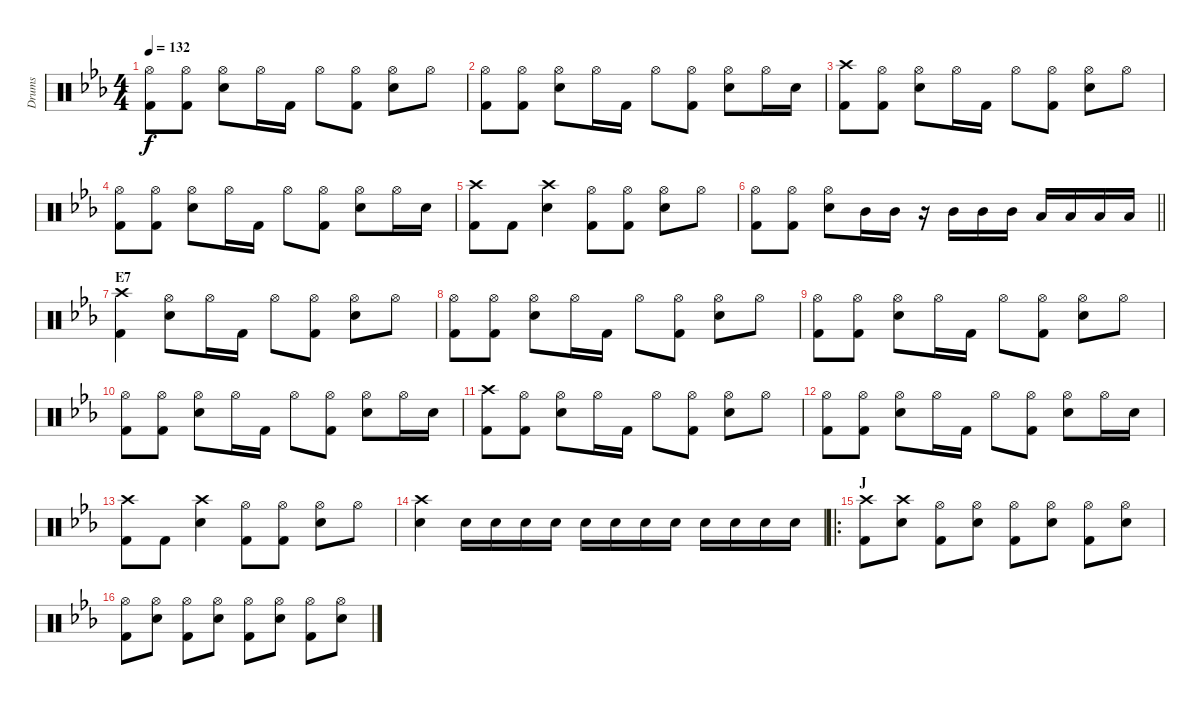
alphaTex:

\track ("Drums" "Drums") {instrument percussion}
\staff {score}
\articulation defaults
\ts (4 4)
\tempo 132
\clef neutral
\ks eb
("Hi-Hat (open)" "Kick (hit) 2").8{dy f} ("Hi-Hat (open)" "Kick (hit) 2").8 ("Hi-Hat (open)" "Snare (hit) 2").8 "Hi-Hat (open)".16 "Kick (hit) 2".16 "Hi-Hat (open)".8 ("Hi-Hat (open)" "Kick (hit) 2").8 ("Hi-Hat (open)" "Snare (hit) 2").8 "Hi-Hat (open)".8 |
("Hi-Hat (open)" "Kick (hit) 2").8 ("Hi-Hat (open)" "Kick (hit) 2").8 ("Hi-Hat (open)" "Snare (hit) 2").8 "Hi-Hat (open)".16 "Kick (hit) 2".16 "Hi-Hat (open)".8 ("Hi-Hat (open)" "Kick (hit) 2").8 ("Hi-Hat (open)" "Snare (hit) 2").8 "Hi-Hat (open)".16 "Snare (hit) 2".16 |
("Crash high (hit)" "Kick (hit) 2").8 ("Hi-Hat (open)" "Kick (hit) 2").8 ("Hi-Hat (open)" "Snare (hit) 2").8 "Hi-Hat (open)".16 "Kick (hit) 2".16 "Hi-Hat (open)".8 ("Hi-Hat (open)" "Kick (hit) 2").8 ("Hi-Hat (open)" "Snare (hit) 2").8 "Hi-Hat (open)".8 |
("Hi-Hat (open)" "Kick (hit) 2").8 ("Hi-Hat (open)" "Kick (hit) 2").8 ("Hi-Hat (open)" "Snare (hit) 2").8 "Hi-Hat (open)".16 "Kick (hit) 2".16 "Hi-Hat (open)".8 ("Hi-Hat (open)" "Kick (hit) 2").8 ("Hi-Hat (open)" "Snare (hit) 2").8 "Hi-Hat (open)".16 "Snare (hit) 2".16 |
("Crash high (hit)" "Kick (hit) 2").8 "Kick (hit) 2".8 ("Crash high (hit)" "Snare (hit) 2").4 ("Hi-Hat (open)" "Kick (hit) 2").8 ("Hi-Hat (open)" "Kick (hit) 2").8 ("Hi-Hat (open)" "Snare (hit) 2").8 "Hi-Hat (open)".8 |
\barLineRight lightlight
("Hi-Hat (open)" "Kick (hit) 2").8 ("Hi-Hat (open)" "Kick (hit) 2").8 ("Hi-Hat (open)" "Snare (hit) 2").8 "Mid Tom (hit)".16 "Mid Tom (hit)".16 r.16 "Mid Tom (hit)".16 "Mid Tom (hit)".16 "Mid Tom (hit)".16 "Low Tom (hit)".16 "Low Tom (hit)".16 "Low Tom (hit)".16 "Low Tom (hit)".16 |
\section ("" "E7")
("Crash high (hit)" "Kick (hit) 2").4 ("Hi-Hat (open)" "Snare (hit) 2").8 "Hi-Hat (open)".16 "Kick (hit) 2".16 "Hi-Hat (open)".8 ("Hi-Hat (open)" "Kick (hit) 2").8 ("Hi-Hat (open)" "Snare (hit) 2").8 "Hi-Hat (open)".8 |
("Hi-Hat (open)" "Kick (hit) 2").8 ("Hi-Hat (open)" "Kick (hit) 2").8 ("Hi-Hat (open)" "Snare (hit) 2").8 "Hi-Hat (open)".16 "Kick (hit) 2".16 "Hi-Hat (open)".8 ("Hi-Hat (open)" "Kick (hit) 2").8 ("Hi-Hat (open)" "Snare (hit) 2").8 "Hi-Hat (open)".8 |
("Hi-Hat (open)" "Kick (hit) 2").8 ("Hi-Hat (open)" "Kick (hit) 2").8 ("Hi-Hat (open)" "Snare (hit) 2").8 "Hi-Hat (open)".16 "Kick (hit) 2".16 "Hi-Hat (open)".8 ("Hi-Hat (open)" "Kick (hit) 2").8 ("Hi-Hat (open)" "Snare (hit) 2").8 "Hi-Hat (open)".8 |
("Hi-Hat (open)" "Kick (hit) 2").8 ("Hi-Hat (open)" "Kick (hit) 2").8 ("Hi-Hat (open)" "Snare (hit) 2").8 "Hi-Hat (open)".16 "Kick (hit) 2".16 "Hi-Hat (open)".8 ("Hi-Hat (open)" "Kick (hit) 2").8 ("Hi-Hat (open)" "Snare (hit) 2").8 "Hi-Hat (open)".16 "Snare (hit) 2".16 |
("Crash high (hit)" "Kick (hit) 2").8 ("Hi-Hat (open)" "Kick (hit) 2").8 ("Hi-Hat (open)" "Snare (hit) 2").8 "Hi-Hat (open)".16 "Kick (hit) 2".16 "Hi-Hat (open)".8 ("Hi-Hat (open)" "Kick (hit) 2").8 ("Hi-Hat (open)" "Snare (hit) 2").8 "Hi-Hat (open)".8 |
("Hi-Hat (open)" "Kick (hit) 2").8 ("Hi-Hat (open)" "Kick (hit) 2").8 ("Hi-Hat (open)" "Snare (hit) 2").8 "Hi-Hat (open)".16 "Kick (hit) 2".16 "Hi-Hat (open)".8 ("Hi-Hat (open)" "Kick (hit) 2").8 ("Hi-Hat (open)" "Snare (hit) 2").8 "Hi-Hat (open)".16 "Snare (hit) 2".16 |
("Crash high (hit)" "Kick (hit) 2").8 "Kick (hit) 2".8 ("Crash high (hit)" "Snare (hit) 2").4 ("Hi-Hat (open)" "Kick (hit) 2").8 ("Hi-Hat (open)" "Kick (hit) 2").8 ("Hi-Hat (open)" "Snare (hit) 2").8 "Hi-Hat (open)".8 |
("Crash high (hit)" "Snare (hit) 2").4 "Snare (hit) 2".16 "Snare (hit) 2".16 "Snare (hit) 2".16 "Snare (hit) 2".16 "Snare (hit) 2".16 "Snare (hit) 2".16 "Snare (hit) 2".16 "Snare (hit) 2".16 "Snare (hit) 2".16 "Snare (hit) 2".16 "Snare (hit) 2".16 "Snare (hit) 2".16 |
\ro
\section ("" "J")
("Crash high (hit)" "Kick (hit) 2").8 ("Crash high (hit)" "Snare (hit) 2").8 ("Hi-Hat (open)" "Kick (hit) 2").8 ("Hi-Hat (open)" "Snare (hit) 2").8 ("Hi-Hat (open)" "Kick (hit) 2").8 ("Hi-Hat (open)" "Snare (hit) 2").8 ("Hi-Hat (open)" "Kick (hit) 2").8 ("Hi-Hat (open)" "Snare (hit) 2").8 |
("Hi-Hat (open)" "Kick (hit) 2").8 ("Hi-Hat (open)" "Snare (hit) 2").8 ("Hi-Hat (open)" "Kick (hit) 2").8 ("Hi-Hat (open)" "Snare (hit) 2").8 ("Hi-Hat (open)" "Kick (hit) 2").8 ("Hi-Hat (open)" "Snare (hit) 2").8 ("Hi-Hat (open)" "Kick (hit) 2").8 ("Hi-Hat (open)" "Snare (hit) 2").8
